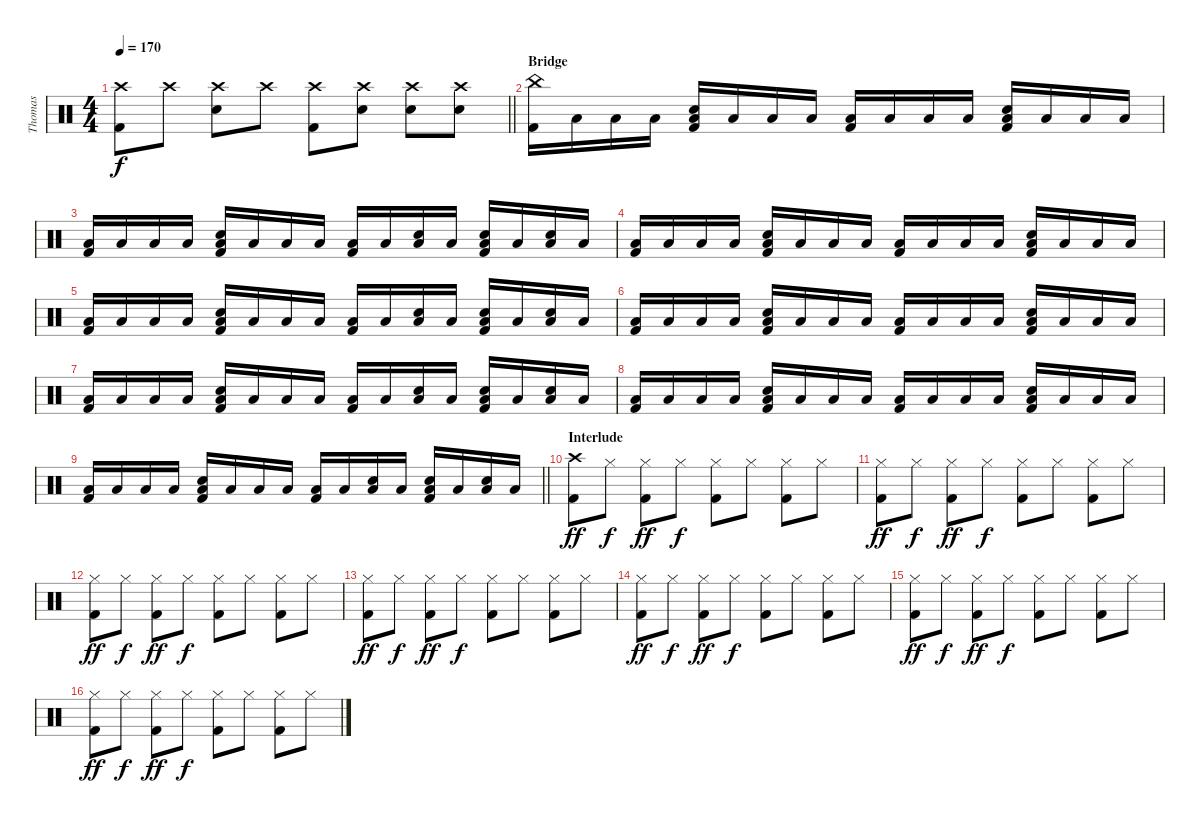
\track ("Thomas" "Thomas") {instrument percussion}
\staff {score}
\articulation defaults
\ts (4 4)
\tempo 170
\clef neutral
\barLineRight lightlight
\ks c
("Crash high (hit)" "Kick (hit) 2").8{dy f} "Crash high (hit)".8 ("Crash high (hit)" "Snare (hit) 2").8 "Crash high (hit)".8 ("Crash high (hit)" "Kick (hit) 2").8 ("Crash high (hit)" "Snare (hit) 2").8 ("Crash high (hit)" "Snare (hit) 2").8 ("Crash high (hit)" "Snare (hit) 2").8 |
\section ("" "Bridge")
("China (hit)" "Kick (hit) 2").16 "Low Floor Tom (hit)".16 "Low Floor Tom (hit)".16 "Low Floor Tom (hit)".16 ("Low Floor Tom (hit)" "Snare (hit) 2" "Kick (hit) 2").16 "Low Floor Tom (hit)".16 "Low Floor Tom (hit)".16 "Low Floor Tom (hit)".16 ("Low Floor Tom (hit)" "Kick (hit) 2").16 "Low Floor Tom (hit)".16 "Low Floor Tom (hit)".16 "Low Floor Tom (hit)".16 ("Low Floor Tom (hit)" "Snare (hit) 2" "Kick (hit) 2").16 "Low Floor Tom (hit)".16 "Low Floor Tom (hit)".16 "Low Floor Tom (hit)".16 |
("Low Floor Tom (hit)" "Kick (hit) 2").16 "Low Floor Tom (hit)".16 "Low Floor Tom (hit)".16 "Low Floor Tom (hit)".16 ("Low Floor Tom (hit)" "Snare (hit) 2" "Kick (hit) 2").16 "Low Floor Tom (hit)".16 "Low Floor Tom (hit)".16 "Low Floor Tom (hit)".16 ("Low Floor Tom (hit)" "Kick (hit) 2").16 "Low Floor Tom (hit)".16 ("Low Floor Tom (hit)" "Snare (hit) 2").16 "Low Floor Tom (hit)".16 ("Low Floor Tom (hit)" "Snare (hit) 2" "Kick (hit) 2").16 "Low Floor Tom (hit)".16 ("Low Floor Tom (hit)" "Snare (hit) 2").16 "Low Floor Tom (hit)".16 |
("Low Floor Tom (hit)" "Kick (hit) 2").16 "Low Floor Tom (hit)".16 "Low Floor Tom (hit)".16 "Low Floor Tom (hit)".16 ("Low Floor Tom (hit)" "Snare (hit) 2" "Kick (hit) 2").16 "Low Floor Tom (hit)".16 "Low Floor Tom (hit)".16 "Low Floor Tom (hit)".16 ("Low Floor Tom (hit)" "Kick (hit) 2").16 "Low Floor Tom (hit)".16 "Low Floor Tom (hit)".16 "Low Floor Tom (hit)".16 ("Low Floor Tom (hit)" "Snare (hit) 2" "Kick (hit) 2").16 "Low Floor Tom (hit)".16 "Low Floor Tom (hit)".16 "Low Floor Tom (hit)".16 |
("Low Floor Tom (hit)" "Kick (hit) 2").16 "Low Floor Tom (hit)".16 "Low Floor Tom (hit)".16 "Low Floor Tom (hit)".16 ("Low Floor Tom (hit)" "Snare (hit) 2" "Kick (hit) 2").16 "Low Floor Tom (hit)".16 "Low Floor Tom (hit)".16 "Low Floor Tom (hit)".16 ("Low Floor Tom (hit)" "Kick (hit) 2").16 "Low Floor Tom (hit)".16 ("Low Floor Tom (hit)" "Snare (hit) 2").16 "Low Floor Tom (hit)".16 ("Low Floor Tom (hit)" "Snare (hit) 2" "Kick (hit) 2").16 "Low Floor Tom (hit)".16 ("Low Floor Tom (hit)" "Snare (hit) 2").16 "Low Floor Tom (hit)".16 |
("Low Floor Tom (hit)" "Kick (hit) 2").16 "Low Floor Tom (hit)".16 "Low Floor Tom (hit)".16 "Low Floor Tom (hit)".16 ("Low Floor Tom (hit)" "Snare (hit) 2" "Kick (hit) 2").16 "Low Floor Tom (hit)".16 "Low Floor Tom (hit)".16 "Low Floor Tom (hit)".16 ("Low Floor Tom (hit)" "Kick (hit) 2").16 "Low Floor Tom (hit)".16 "Low Floor Tom (hit)".16 "Low Floor Tom (hit)".16 ("Low Floor Tom (hit)" "Snare (hit) 2" "Kick (hit) 2").16 "Low Floor Tom (hit)".16 "Low Floor Tom (hit)".16 "Low Floor Tom (hit)".16 |
("Low Floor Tom (hit)" "Kick (hit) 2").16 "Low Floor Tom (hit)".16 "Low Floor Tom (hit)".16 "Low Floor Tom (hit)".16 ("Low Floor Tom (hit)" "Snare (hit) 2" "Kick (hit) 2").16 "Low Floor Tom (hit)".16 "Low Floor Tom (hit)".16 "Low Floor Tom (hit)".16 ("Low Floor Tom (hit)" "Kick (hit) 2").16 "Low Floor Tom (hit)".16 ("Low Floor Tom (hit)" "Snare (hit) 2").16 "Low Floor Tom (hit)".16 ("Low Floor Tom (hit)" "Snare (hit) 2" "Kick (hit) 2").16 "Low Floor Tom (hit)".16 ("Low Floor Tom (hit)" "Snare (hit) 2").16 "Low Floor Tom (hit)".16 |
("Low Floor Tom (hit)" "Kick (hit) 2").16 "Low Floor Tom (hit)".16 "Low Floor Tom (hit)".16 "Low Floor Tom (hit)".16 ("Low Floor Tom (hit)" "Snare (hit) 2" "Kick (hit) 2").16 "Low Floor Tom (hit)".16 "Low Floor Tom (hit)".16 "Low Floor Tom (hit)".16 ("Low Floor Tom (hit)" "Kick (hit) 2").16 "Low Floor Tom (hit)".16 "Low Floor Tom (hit)".16 "Low Floor Tom (hit)".16 ("Low Floor Tom (hit)" "Snare (hit) 2" "Kick (hit) 2").16 "Low Floor Tom (hit)".16 "Low Floor Tom (hit)".16 "Low Floor Tom (hit)".16 |
\barLineRight lightlight
("Low Floor Tom (hit)" "Kick (hit) 2").16 "Low Floor Tom (hit)".16 "Low Floor Tom (hit)".16 "Low Floor Tom (hit)".16 ("Low Floor Tom (hit)" "Snare (hit) 2" "Kick (hit) 2").16 "Low Floor Tom (hit)".16 "Low Floor Tom (hit)".16 "Low Floor Tom (hit)".16 ("Low Floor Tom (hit)" "Kick (hit) 2").16 "Low Floor Tom (hit)".16 ("Low Floor Tom (hit)" "Snare (hit) 2").16 "Low Floor Tom (hit)".16 ("Low Floor Tom (hit)" "Snare (hit) 2" "Kick (hit) 2").16 "Low Floor Tom (hit)".16 ("Low Floor Tom (hit)" "Snare (hit) 2").16 "Low Floor Tom (hit)".16 |
\section ("" "Interlude")
("Crash high (hit)" "Kick (hit) 2").8{dy ff} "Hi-Hat (closed)".8{dy f} ("Hi-Hat (closed)" "Kick (hit) 2").8{dy ff} "Hi-Hat (closed)".8{dy f} ("Hi-Hat (closed)" "Kick (hit) 2").8 "Hi-Hat (closed)".8 ("Hi-Hat (closed)" "Kick (hit) 2").8 "Hi-Hat (closed)".8 |
("Hi-Hat (closed)" "Kick (hit) 2").8{dy ff} "Hi-Hat (closed)".8{dy f} ("Hi-Hat (closed)" "Kick (hit) 2").8{dy ff} "Hi-Hat (closed)".8{dy f} ("Hi-Hat (closed)" "Kick (hit) 2").8 "Hi-Hat (closed)".8 ("Hi-Hat (closed)" "Kick (hit) 2").8 "Hi-Hat (closed)".8 |
("Hi-Hat (closed)" "Kick (hit) 2").8{dy ff} "Hi-Hat (closed)".8{dy f} ("Hi-Hat (closed)" "Kick (hit) 2").8{dy ff} "Hi-Hat (closed)".8{dy f} ("Hi-Hat (closed)" "Kick (hit) 2").8 "Hi-Hat (closed)".8 ("Hi-Hat (closed)" "Kick (hit) 2").8 "Hi-Hat (closed)".8 |
("Hi-Hat (closed)" "Kick (hit) 2").8{dy ff} "Hi-Hat (closed)".8{dy f} ("Hi-Hat (closed)" "Kick (hit) 2").8{dy ff} "Hi-Hat (closed)".8{dy f} ("Hi-Hat (closed)" "Kick (hit) 2").8 "Hi-Hat (closed)".8 ("Hi-Hat (closed)" "Kick (hit) 2").8 "Hi-Hat (closed)".8 |
("Hi-Hat (closed)" "Kick (hit) 2").8{dy ff} "Hi-Hat (closed)".8{dy f} ("Hi-Hat (closed)" "Kick (hit) 2").8{dy ff} "Hi-Hat (closed)".8{dy f} ("Hi-Hat (closed)" "Kick (hit) 2").8 "Hi-Hat (closed)".8 ("Hi-Hat (closed)" "Kick (hit) 2").8 "Hi-Hat (closed)".8 |
("Hi-Hat (closed)" "Kick (hit) 2").8{dy ff} "Hi-Hat (closed)".8{dy f} ("Hi-Hat (closed)" "Kick (hit) 2").8{dy ff} "Hi-Hat (closed)".8{dy f} ("Hi-Hat (closed)" "Kick (hit) 2").8 "Hi-Hat (closed)".8 ("Hi-Hat (closed)" "Kick (hit) 2").8 "Hi-Hat (closed)".8 |
("Hi-Hat (closed)" "Kick (hit) 2").8{dy ff} "Hi-Hat (closed)".8{dy f} ("Hi-Hat (closed)" "Kick (hit) 2").8{dy ff} "Hi-Hat (closed)".8{dy f} ("Hi-Hat (closed)" "Kick (hit) 2").8 "Hi-Hat (closed)".8 ("Hi-Hat (closed)" "Kick (hit) 2").8 "Hi-Hat (closed)".8
